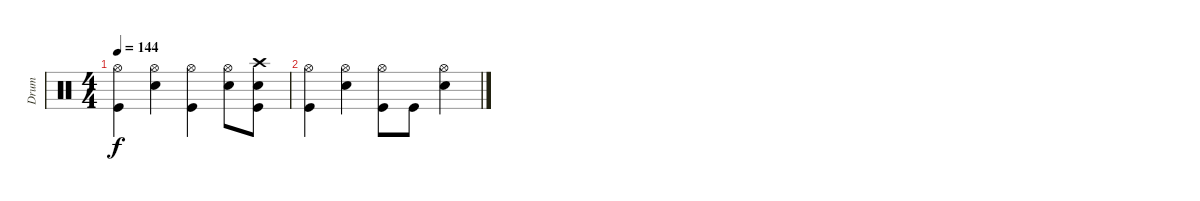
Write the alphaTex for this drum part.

\track ("Drum" "Drum") {instrument percussion}
\staff {score}
\articulation defaults
\ts (4 4)
\tempo 144
\clef neutral
\ks c
("Hi-Hat (open)" "Kick (hit)").4{dy f} ("Hi-Hat (open)" "Electric Snare (hit)").4 ("Hi-Hat (open)" "Kick (hit)").4 ("Hi-Hat (open)" "Electric Snare (hit)").8 ("Crash high (hit)" "Electric Snare (hit)" "Kick (hit)").8 |
("Hi-Hat (open)" "Kick (hit)").4 ("Hi-Hat (open)" "Electric Snare (hit)").4 ("Hi-Hat (open)" "Kick (hit)").8 "Kick (hit)".8 ("Hi-Hat (open)" "Electric Snare (hit)").4
